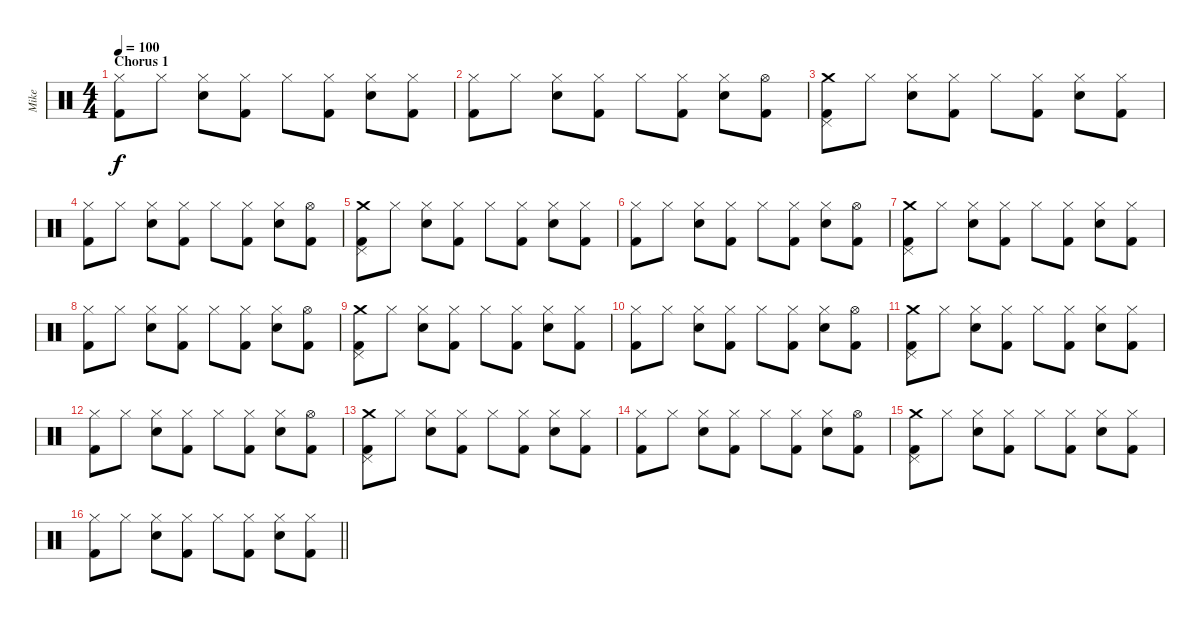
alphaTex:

\track ("Mike" "Mike") {instrument percussion}
\staff {score}
\articulation defaults
\ts (4 4)
\section ("" "Chorus 1")
\tempo 100
\clef neutral
\ks c
("Hi-Hat (closed)" "Kick (hit) 2").8{dy f} "Hi-Hat (closed)".8 ("Hi-Hat (closed)" "Electric Snare (hit)").8 ("Hi-Hat (closed)" "Kick (hit) 2").8 "Hi-Hat (closed)".8 ("Hi-Hat (closed)" "Kick (hit) 2").8 ("Hi-Hat (closed)" "Electric Snare (hit)").8 ("Hi-Hat (closed)" "Kick (hit) 2").8 |
("Hi-Hat (closed)" "Kick (hit) 2").8 "Hi-Hat (closed)".8 ("Hi-Hat (closed)" "Electric Snare (hit)").8 ("Hi-Hat (closed)" "Kick (hit) 2").8 "Hi-Hat (closed)".8 ("Hi-Hat (closed)" "Kick (hit) 2").8 ("Hi-Hat (closed)" "Electric Snare (hit)").8 ("Hi-Hat (open)" "Kick (hit) 2").8 |
("Crash medium (hit)" "Pedal Hi-Hat (hit)" "Kick (hit) 2").8 "Hi-Hat (closed)".8 ("Hi-Hat (closed)" "Electric Snare (hit)").8 ("Hi-Hat (closed)" "Kick (hit) 2").8 "Hi-Hat (closed)".8 ("Hi-Hat (closed)" "Kick (hit) 2").8 ("Hi-Hat (closed)" "Electric Snare (hit)").8 ("Hi-Hat (closed)" "Kick (hit) 2").8 |
("Hi-Hat (closed)" "Kick (hit) 2").8 "Hi-Hat (closed)".8 ("Hi-Hat (closed)" "Electric Snare (hit)").8 ("Hi-Hat (closed)" "Kick (hit) 2").8 "Hi-Hat (closed)".8 ("Hi-Hat (closed)" "Kick (hit) 2").8 ("Hi-Hat (closed)" "Electric Snare (hit)").8 ("Hi-Hat (open)" "Kick (hit) 2").8 |
("Crash medium (hit)" "Pedal Hi-Hat (hit)" "Kick (hit) 2").8 "Hi-Hat (closed)".8 ("Hi-Hat (closed)" "Electric Snare (hit)").8 ("Hi-Hat (closed)" "Kick (hit) 2").8 "Hi-Hat (closed)".8 ("Hi-Hat (closed)" "Kick (hit) 2").8 ("Hi-Hat (closed)" "Electric Snare (hit)").8 ("Hi-Hat (closed)" "Kick (hit) 2").8 |
("Hi-Hat (closed)" "Kick (hit) 2").8 "Hi-Hat (closed)".8 ("Hi-Hat (closed)" "Electric Snare (hit)").8 ("Hi-Hat (closed)" "Kick (hit) 2").8 "Hi-Hat (closed)".8 ("Hi-Hat (closed)" "Kick (hit) 2").8 ("Hi-Hat (closed)" "Electric Snare (hit)").8 ("Hi-Hat (open)" "Kick (hit) 2").8 |
("Crash medium (hit)" "Pedal Hi-Hat (hit)" "Kick (hit) 2").8 "Hi-Hat (closed)".8 ("Hi-Hat (closed)" "Electric Snare (hit)").8 ("Hi-Hat (closed)" "Kick (hit) 2").8 "Hi-Hat (closed)".8 ("Hi-Hat (closed)" "Kick (hit) 2").8 ("Hi-Hat (closed)" "Electric Snare (hit)").8 ("Hi-Hat (closed)" "Kick (hit) 2").8 |
("Hi-Hat (closed)" "Kick (hit) 2").8 "Hi-Hat (closed)".8 ("Hi-Hat (closed)" "Electric Snare (hit)").8 ("Hi-Hat (closed)" "Kick (hit) 2").8 "Hi-Hat (closed)".8 ("Hi-Hat (closed)" "Kick (hit) 2").8 ("Hi-Hat (closed)" "Electric Snare (hit)").8 ("Hi-Hat (open)" "Kick (hit) 2").8 |
("Crash medium (hit)" "Pedal Hi-Hat (hit)" "Kick (hit) 2").8 "Hi-Hat (closed)".8 ("Hi-Hat (closed)" "Electric Snare (hit)").8 ("Hi-Hat (closed)" "Kick (hit) 2").8 "Hi-Hat (closed)".8 ("Hi-Hat (closed)" "Kick (hit) 2").8 ("Hi-Hat (closed)" "Electric Snare (hit)").8 ("Hi-Hat (closed)" "Kick (hit) 2").8 |
("Hi-Hat (closed)" "Kick (hit) 2").8 "Hi-Hat (closed)".8 ("Hi-Hat (closed)" "Electric Snare (hit)").8 ("Hi-Hat (closed)" "Kick (hit) 2").8 "Hi-Hat (closed)".8 ("Hi-Hat (closed)" "Kick (hit) 2").8 ("Hi-Hat (closed)" "Electric Snare (hit)").8 ("Hi-Hat (open)" "Kick (hit) 2").8 |
("Crash medium (hit)" "Pedal Hi-Hat (hit)" "Kick (hit) 2").8 "Hi-Hat (closed)".8 ("Hi-Hat (closed)" "Electric Snare (hit)").8 ("Hi-Hat (closed)" "Kick (hit) 2").8 "Hi-Hat (closed)".8 ("Hi-Hat (closed)" "Kick (hit) 2").8 ("Hi-Hat (closed)" "Electric Snare (hit)").8 ("Hi-Hat (closed)" "Kick (hit) 2").8 |
("Hi-Hat (closed)" "Kick (hit) 2").8 "Hi-Hat (closed)".8 ("Hi-Hat (closed)" "Electric Snare (hit)").8 ("Hi-Hat (closed)" "Kick (hit) 2").8 "Hi-Hat (closed)".8 ("Hi-Hat (closed)" "Kick (hit) 2").8 ("Hi-Hat (closed)" "Electric Snare (hit)").8 ("Hi-Hat (open)" "Kick (hit) 2").8 |
("Crash medium (hit)" "Pedal Hi-Hat (hit)" "Kick (hit) 2").8 "Hi-Hat (closed)".8 ("Hi-Hat (closed)" "Electric Snare (hit)").8 ("Hi-Hat (closed)" "Kick (hit) 2").8 "Hi-Hat (closed)".8 ("Hi-Hat (closed)" "Kick (hit) 2").8 ("Hi-Hat (closed)" "Electric Snare (hit)").8 ("Hi-Hat (closed)" "Kick (hit) 2").8 |
("Hi-Hat (closed)" "Kick (hit) 2").8 "Hi-Hat (closed)".8 ("Hi-Hat (closed)" "Electric Snare (hit)").8 ("Hi-Hat (closed)" "Kick (hit) 2").8 "Hi-Hat (closed)".8 ("Hi-Hat (closed)" "Kick (hit) 2").8 ("Hi-Hat (closed)" "Electric Snare (hit)").8 ("Hi-Hat (open)" "Kick (hit) 2").8 |
("Crash medium (hit)" "Pedal Hi-Hat (hit)" "Kick (hit) 2").8 "Hi-Hat (closed)".8 ("Hi-Hat (closed)" "Electric Snare (hit)").8 ("Hi-Hat (closed)" "Kick (hit) 2").8 "Hi-Hat (closed)".8 ("Hi-Hat (closed)" "Kick (hit) 2").8 ("Hi-Hat (closed)" "Electric Snare (hit)").8 ("Hi-Hat (closed)" "Kick (hit) 2").8 |
\barLineRight lightlight
("Hi-Hat (closed)" "Kick (hit) 2").8 "Hi-Hat (closed)".8 ("Hi-Hat (closed)" "Electric Snare (hit)").8 ("Hi-Hat (closed)" "Kick (hit) 2").8 "Hi-Hat (closed)".8 ("Hi-Hat (closed)" "Kick (hit) 2").8 ("Hi-Hat (closed)" "Electric Snare (hit)").8 ("Hi-Hat (closed)" "Kick (hit) 2").8
